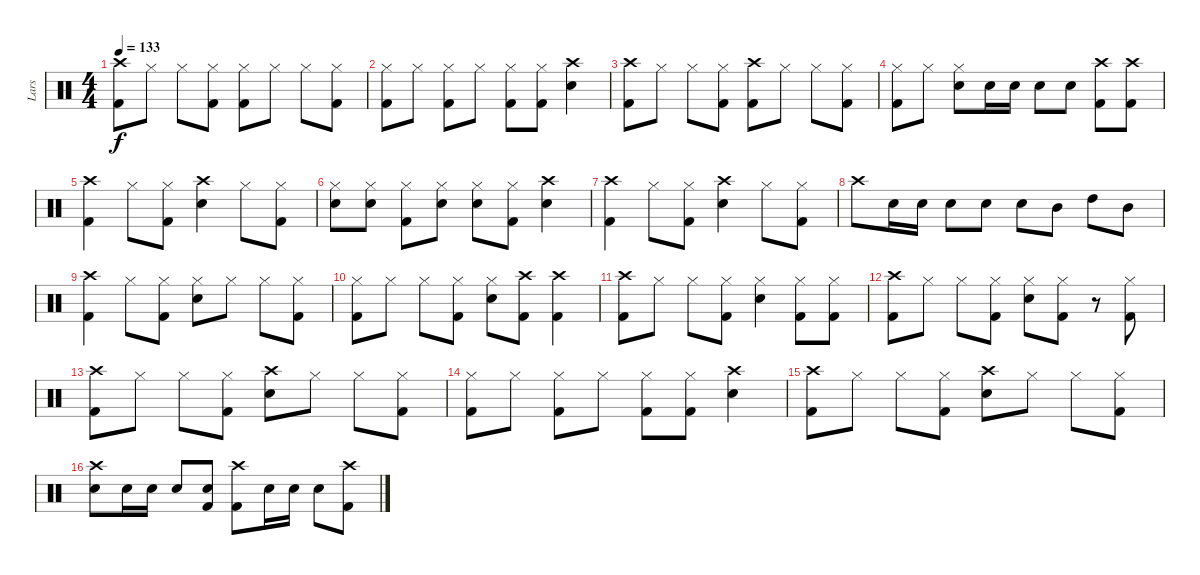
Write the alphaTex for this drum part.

\track ("Lars" "Lars") {instrument percussion}
\staff {score}
\articulation defaults
\ts (4 4)
\tempo 133
\clef neutral
\ks c
("Crash high (hit)" "Kick (hit) 2").8{dy f} "Hi-Hat (closed)".8 "Hi-Hat (closed)".8 ("Hi-Hat (closed)" "Kick (hit) 2").8 ("Hi-Hat (closed)" "Kick (hit) 2").8 "Hi-Hat (closed)".8 "Hi-Hat (closed)".8 ("Hi-Hat (closed)" "Kick (hit) 2").8 |
("Hi-Hat (closed)" "Kick (hit) 2").8 "Hi-Hat (closed)".8 ("Hi-Hat (closed)" "Kick (hit) 2").8 "Hi-Hat (closed)".8 ("Hi-Hat (closed)" "Kick (hit) 2").8 ("Hi-Hat (closed)" "Kick (hit) 2").8 ("Crash high (hit)" "Electric Snare (hit)").4 |
("Crash high (hit)" "Kick (hit) 2").8 "Hi-Hat (closed)".8 "Hi-Hat (closed)".8 ("Hi-Hat (closed)" "Kick (hit) 2").8 ("Crash high (hit)" "Kick (hit) 2").8 "Hi-Hat (closed)".8 "Hi-Hat (closed)".8 ("Hi-Hat (closed)" "Kick (hit) 2").8 |
("Hi-Hat (closed)" "Kick (hit) 2").8 "Hi-Hat (closed)".8 ("Hi-Hat (closed)" "Electric Snare (hit)").8 "Electric Snare (hit)".16 "Electric Snare (hit)".16 "Electric Snare (hit)".8 "Electric Snare (hit)".8 ("Crash high (hit)" "Kick (hit) 2").8 ("Crash high (hit)" "Kick (hit) 2").8 |
("Crash high (hit)" "Kick (hit) 2").4 "Hi-Hat (closed)".8 ("Hi-Hat (closed)" "Kick (hit) 2").8 ("Crash high (hit)" "Electric Snare (hit)").4 "Hi-Hat (closed)".8 ("Hi-Hat (closed)" "Kick (hit) 2").8 |
("Hi-Hat (closed)" "Electric Snare (hit)").8 ("Hi-Hat (closed)" "Electric Snare (hit)").8 ("Hi-Hat (closed)" "Kick (hit) 2").8 ("Hi-Hat (closed)" "Electric Snare (hit)").8 ("Hi-Hat (closed)" "Electric Snare (hit)").8 ("Hi-Hat (closed)" "Kick (hit) 2").8 ("Crash high (hit)" "Electric Snare (hit)").4 |
("Crash high (hit)" "Kick (hit) 2").4 "Hi-Hat (closed)".8 ("Hi-Hat (closed)" "Kick (hit) 2").8 ("Crash high (hit)" "Electric Snare (hit)").4 "Hi-Hat (closed)".8 ("Hi-Hat (closed)" "Kick (hit) 2").8 |
"Crash high (hit)".8 "Electric Snare (hit)".16 "Electric Snare (hit)".16 "Electric Snare (hit)".8 "Electric Snare (hit)".8 "Electric Snare (hit)".8 "Mid Tom (hit)".8 "High Tom (hit)".8 "Mid Tom (hit)".8 |
("Crash high (hit)" "Kick (hit) 2").4 "Hi-Hat (closed)".8 ("Hi-Hat (closed)" "Kick (hit) 2").8 ("Hi-Hat (closed)" "Electric Snare (hit)").8 "Hi-Hat (closed)".8 "Hi-Hat (closed)".8 ("Hi-Hat (closed)" "Kick (hit) 2").8 |
("Hi-Hat (closed)" "Kick (hit) 2").8 "Hi-Hat (closed)".8 "Hi-Hat (closed)".8 ("Hi-Hat (closed)" "Kick (hit) 2").8 ("Hi-Hat (closed)" "Electric Snare (hit)").8 ("Crash high (hit)" "Kick (hit) 2").8 ("Crash high (hit)" "Kick (hit) 2").4 |
("Crash high (hit)" "Kick (hit) 2").8 "Hi-Hat (closed)".8 "Hi-Hat (closed)".8 ("Hi-Hat (closed)" "Kick (hit) 2").8 ("Hi-Hat (closed)" "Electric Snare (hit)").4 ("Hi-Hat (closed)" "Kick (hit) 2").8 ("Hi-Hat (closed)" "Kick (hit) 2").8 |
("Crash high (hit)" "Kick (hit) 2").8 "Hi-Hat (closed)".8 "Hi-Hat (closed)".8 ("Hi-Hat (closed)" "Kick (hit) 2").8 ("Hi-Hat (closed)" "Electric Snare (hit)").8 ("Hi-Hat (closed)" "Kick (hit) 2").8 r.8 ("Hi-Hat (closed)" "Kick (hit) 2").8 |
("Crash high (hit)" "Kick (hit) 2").8 "Hi-Hat (closed)".8 "Hi-Hat (closed)".8 ("Hi-Hat (closed)" "Kick (hit) 2").8 ("Crash high (hit)" "Electric Snare (hit)").8 "Hi-Hat (closed)".8 "Hi-Hat (closed)".8 ("Hi-Hat (closed)" "Kick (hit) 2").8 |
("Hi-Hat (closed)" "Kick (hit) 2").8 "Hi-Hat (closed)".8 ("Hi-Hat (closed)" "Kick (hit) 2").8 "Hi-Hat (closed)".8 ("Hi-Hat (closed)" "Kick (hit) 2").8 ("Hi-Hat (closed)" "Kick (hit) 2").8 ("Crash high (hit)" "Electric Snare (hit)").4 |
("Crash high (hit)" "Kick (hit) 2").8 "Hi-Hat (closed)".8 "Hi-Hat (closed)".8 ("Hi-Hat (closed)" "Kick (hit) 2").8 ("Crash high (hit)" "Electric Snare (hit)").8 "Hi-Hat (closed)".8 "Hi-Hat (closed)".8 ("Hi-Hat (closed)" "Kick (hit) 2").8 |
("Crash high (hit)" "Electric Snare (hit)").8 "Electric Snare (hit)".16 "Electric Snare (hit)".16 "Electric Snare (hit)".8 ("Kick (hit) 2" "Electric Snare (hit)").8 ("Crash high (hit)" "Kick (hit) 2").8 "Electric Snare (hit)".16 "Electric Snare (hit)".16 "Snare (hit)".8 ("Crash high (hit)" "Kick (hit) 2").8
